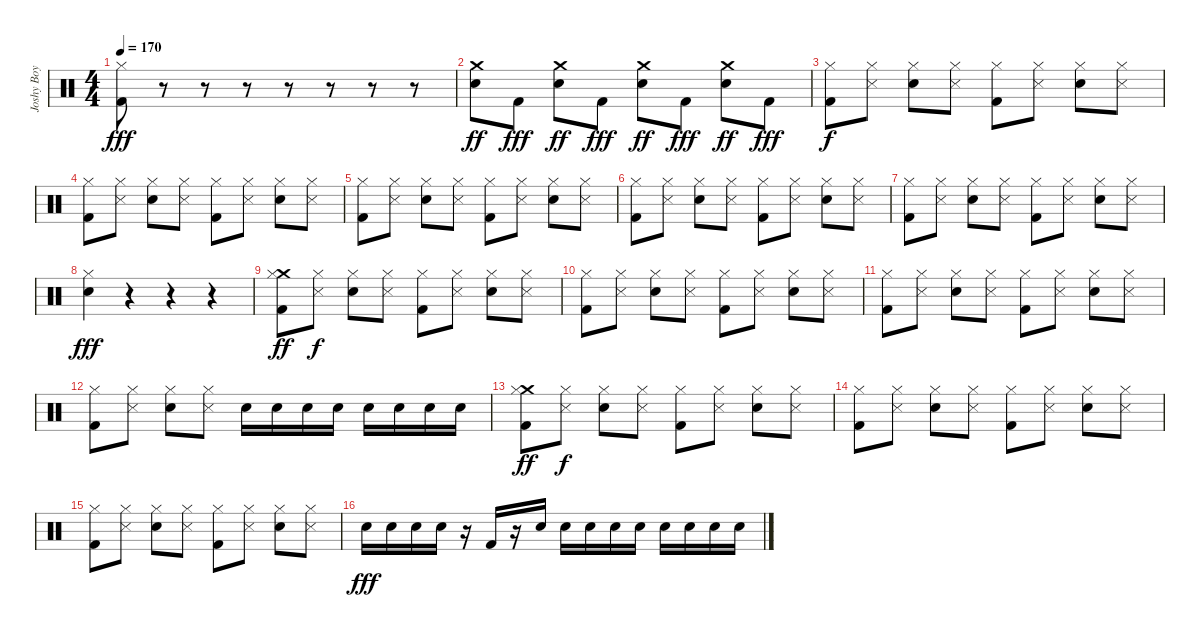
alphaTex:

\track ("Joshy Boy" "Joshy Boy") {instrument percussion}
\staff {score}
\articulation defaults
\ts (4 4)
\tempo 170
\clef neutral
\ks c
("Kick (hit) 2" "Hi-Hat (closed)").8{dy fff} r.8 r.8 r.8 r.8 r.8 r.8 r.8 |
("Crash medium (hit)" "Electric Snare (hit)").8{dy ff} "Kick (hit) 2".8{dy fff} ("Crash medium (hit)" "Electric Snare (hit)").8{dy ff} "Kick (hit) 2".8{dy fff} ("Crash medium (hit)" "Electric Snare (hit)").8{dy ff} "Kick (hit) 2".8{dy fff} ("Crash medium (hit)" "Electric Snare (hit)").8{dy ff} "Kick (hit) 2".8{dy fff} |
("Hi-Hat (closed)" "Kick (hit) 2").8{dy f} ("Hi-Hat (closed)" "Snare (side stick) 3").8 ("Hi-Hat (closed)" "Electric Snare (hit)").8 ("Hi-Hat (closed)" "Snare (side stick) 3").8 ("Hi-Hat (closed)" "Kick (hit) 2").8 ("Hi-Hat (closed)" "Snare (side stick) 3").8 ("Hi-Hat (closed)" "Electric Snare (hit)").8 ("Hi-Hat (closed)" "Snare (side stick) 3").8 |
("Hi-Hat (closed)" "Kick (hit) 2").8 ("Hi-Hat (closed)" "Snare (side stick) 3").8 ("Hi-Hat (closed)" "Electric Snare (hit)").8 ("Hi-Hat (closed)" "Snare (side stick) 3").8 ("Hi-Hat (closed)" "Kick (hit) 2").8 ("Hi-Hat (closed)" "Snare (side stick) 3").8 ("Hi-Hat (closed)" "Electric Snare (hit)").8 ("Hi-Hat (closed)" "Snare (side stick) 3").8 |
("Hi-Hat (closed)" "Kick (hit) 2").8 ("Hi-Hat (closed)" "Snare (side stick) 3").8 ("Hi-Hat (closed)" "Electric Snare (hit)").8 ("Hi-Hat (closed)" "Snare (side stick) 3").8 ("Hi-Hat (closed)" "Kick (hit) 2").8 ("Hi-Hat (closed)" "Snare (side stick) 3").8 ("Hi-Hat (closed)" "Electric Snare (hit)").8 ("Hi-Hat (closed)" "Snare (side stick) 3").8 |
("Hi-Hat (closed)" "Kick (hit) 2").8 ("Hi-Hat (closed)" "Snare (side stick) 3").8 ("Hi-Hat (closed)" "Electric Snare (hit)").8 ("Hi-Hat (closed)" "Snare (side stick) 3").8 ("Hi-Hat (closed)" "Kick (hit) 2").8 ("Hi-Hat (closed)" "Snare (side stick) 3").8 ("Hi-Hat (closed)" "Electric Snare (hit)").8 ("Hi-Hat (closed)" "Snare (side stick) 3").8 |
("Hi-Hat (closed)" "Kick (hit) 2").8 ("Hi-Hat (closed)" "Snare (side stick) 3").8 ("Hi-Hat (closed)" "Electric Snare (hit)").8 ("Hi-Hat (closed)" "Snare (side stick) 3").8 ("Hi-Hat (closed)" "Kick (hit) 2").8 ("Hi-Hat (closed)" "Snare (side stick) 3").8 ("Hi-Hat (closed)" "Electric Snare (hit)").8 ("Hi-Hat (closed)" "Snare (side stick) 3").8 |
("Electric Snare (hit)" "Hi-Hat (closed)").4{dy fff} r.4 r.4 r.4 |
("Crash medium (hit)" "Hi-Hat (closed)" "Kick (hit) 2").8{dy ff} ("Hi-Hat (closed)" "Snare (side stick) 3").8{dy f} ("Hi-Hat (closed)" "Electric Snare (hit)").8 ("Hi-Hat (closed)" "Snare (side stick) 3").8 ("Hi-Hat (closed)" "Kick (hit) 2").8 ("Hi-Hat (closed)" "Snare (side stick) 3").8 ("Hi-Hat (closed)" "Electric Snare (hit)").8 ("Hi-Hat (closed)" "Snare (side stick) 3").8 |
("Hi-Hat (closed)" "Kick (hit) 2").8 ("Hi-Hat (closed)" "Snare (side stick) 3").8 ("Hi-Hat (closed)" "Electric Snare (hit)").8 ("Hi-Hat (closed)" "Snare (side stick) 3").8 ("Hi-Hat (closed)" "Kick (hit) 2").8 ("Hi-Hat (closed)" "Snare (side stick) 3").8 ("Hi-Hat (closed)" "Electric Snare (hit)").8 ("Hi-Hat (closed)" "Snare (side stick) 3").8 |
("Hi-Hat (closed)" "Kick (hit) 2").8 ("Hi-Hat (closed)" "Snare (side stick) 3").8 ("Hi-Hat (closed)" "Electric Snare (hit)").8 ("Hi-Hat (closed)" "Snare (side stick) 3").8 ("Hi-Hat (closed)" "Kick (hit) 2").8 ("Hi-Hat (closed)" "Snare (side stick) 3").8 ("Hi-Hat (closed)" "Electric Snare (hit)").8 ("Hi-Hat (closed)" "Snare (side stick) 3").8 |
("Hi-Hat (closed)" "Kick (hit) 2").8 ("Hi-Hat (closed)" "Snare (side stick) 3").8 ("Hi-Hat (closed)" "Electric Snare (hit)").8 ("Hi-Hat (closed)" "Snare (side stick) 3").8 "Electric Snare (hit)".16 "Electric Snare (hit)".16 "Electric Snare (hit)".16 "Electric Snare (hit)".16 "Electric Snare (hit)".16 "Electric Snare (hit)".16 "Electric Snare (hit)".16 "Electric Snare (hit)".16 |
("Crash medium (hit)" "Hi-Hat (closed)" "Kick (hit) 2").8{dy ff} ("Hi-Hat (closed)" "Snare (side stick) 3").8{dy f} ("Hi-Hat (closed)" "Electric Snare (hit)").8 ("Hi-Hat (closed)" "Snare (side stick) 3").8 ("Hi-Hat (closed)" "Kick (hit) 2").8 ("Hi-Hat (closed)" "Snare (side stick) 3").8 ("Hi-Hat (closed)" "Electric Snare (hit)").8 ("Hi-Hat (closed)" "Snare (side stick) 3").8 |
("Hi-Hat (closed)" "Kick (hit) 2").8 ("Hi-Hat (closed)" "Snare (side stick) 3").8 ("Hi-Hat (closed)" "Electric Snare (hit)").8 ("Hi-Hat (closed)" "Snare (side stick) 3").8 ("Hi-Hat (closed)" "Kick (hit) 2").8 ("Hi-Hat (closed)" "Snare (side stick) 3").8 ("Hi-Hat (closed)" "Electric Snare (hit)").8 ("Hi-Hat (closed)" "Snare (side stick) 3").8 |
("Hi-Hat (closed)" "Kick (hit) 2").8 ("Hi-Hat (closed)" "Snare (side stick) 3").8 ("Hi-Hat (closed)" "Electric Snare (hit)").8 ("Hi-Hat (closed)" "Snare (side stick) 3").8 ("Hi-Hat (closed)" "Kick (hit) 2").8 ("Hi-Hat (closed)" "Snare (side stick) 3").8 ("Hi-Hat (closed)" "Electric Snare (hit)").8 ("Hi-Hat (closed)" "Snare (side stick) 3").8 |
"Electric Snare (hit)".16{dy fff} "Electric Snare (hit)".16 "Electric Snare (hit)".16 "Electric Snare (hit)".16 r.16 "Kick (hit) 2".16 r.16 "Electric Snare (hit)".16 "Electric Snare (hit)".16 "Electric Snare (hit)".16 "Electric Snare (hit)".16 "Electric Snare (hit)".16 "Electric Snare (hit)".16 "Electric Snare (hit)".16 "Electric Snare (hit)".16 "Electric Snare (hit)".16
